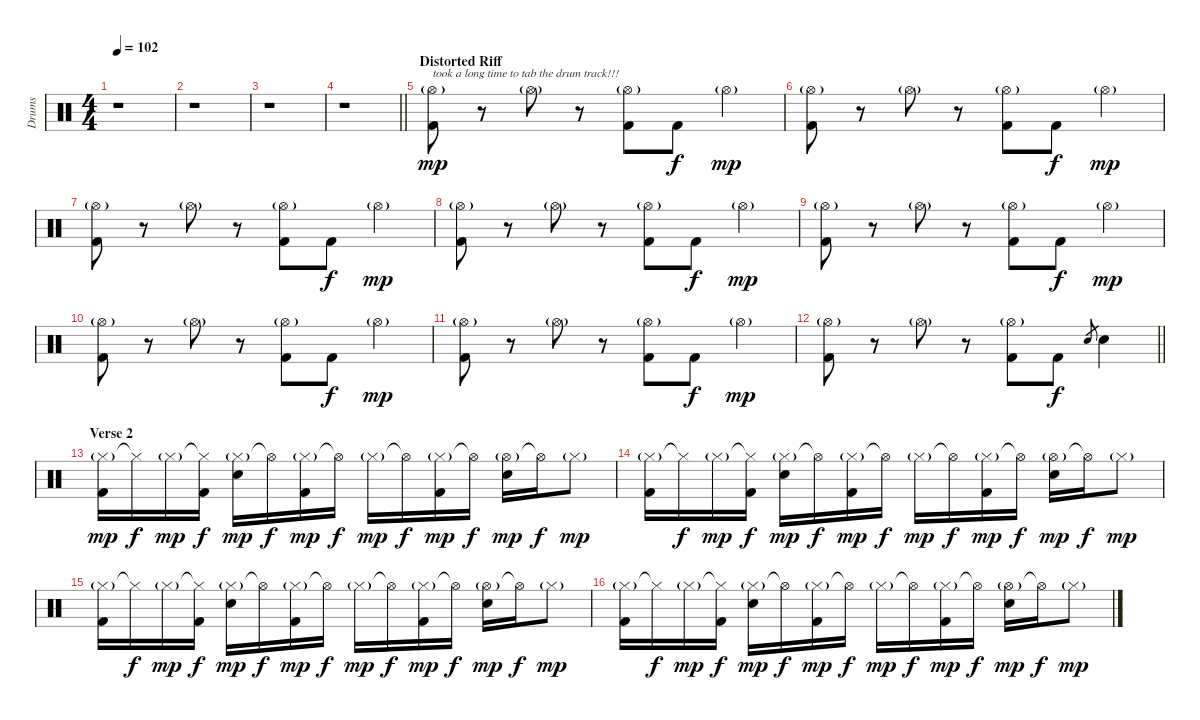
\track ("Drums" "Drums") {instrument percussion}
\staff {score}
\articulation defaults
\ts (4 4)
\tempo 102
\clef neutral
\ks c
r.1{dy mp} |
r.1 |
r.1 |
\barLineRight lightlight
r.1 |
\section ("" "Distorted Riff")
("Hi-Hat (open)"{g} "Kick (hit) 2").8{txt "took a long time to tab the drum track!!!"} r.8 "Hi-Hat (open)"{g}.8 r.8 ("Hi-Hat (open)"{g} "Kick (hit) 2").8 "Kick (hit) 2".8{dy f} "Hi-Hat (open)"{g}.4{dy mp} |
("Hi-Hat (open)"{g} "Kick (hit) 2").8 r.8 "Hi-Hat (open)"{g}.8 r.8 ("Hi-Hat (open)"{g} "Kick (hit) 2").8 "Kick (hit) 2".8{dy f} "Hi-Hat (open)"{g}.4{dy mp} |
("Hi-Hat (open)"{g} "Kick (hit) 2").8 r.8 "Hi-Hat (open)"{g}.8 r.8 ("Hi-Hat (open)"{g} "Kick (hit) 2").8 "Kick (hit) 2".8{dy f} "Hi-Hat (open)"{g}.4{dy mp} |
("Hi-Hat (open)"{g} "Kick (hit) 2").8 r.8 "Hi-Hat (open)"{g}.8 r.8 ("Hi-Hat (open)"{g} "Kick (hit) 2").8 "Kick (hit) 2".8{dy f} "Hi-Hat (open)"{g}.4{dy mp} |
("Hi-Hat (open)"{g} "Kick (hit) 2").8 r.8 "Hi-Hat (open)"{g}.8 r.8 ("Hi-Hat (open)"{g} "Kick (hit) 2").8 "Kick (hit) 2".8{dy f} "Hi-Hat (open)"{g}.4{dy mp} |
("Hi-Hat (open)"{g} "Kick (hit) 2").8 r.8 "Hi-Hat (open)"{g}.8 r.8 ("Hi-Hat (open)"{g} "Kick (hit) 2").8 "Kick (hit) 2".8{dy f} "Hi-Hat (open)"{g}.4{dy mp} |
("Hi-Hat (open)"{g} "Kick (hit) 2").8 r.8 "Hi-Hat (open)"{g}.8 r.8 ("Hi-Hat (open)"{g} "Kick (hit) 2").8 "Kick (hit) 2".8{dy f} "Hi-Hat (open)"{g}.4{dy mp} |
\barLineRight lightlight
("Hi-Hat (open)"{g} "Kick (hit) 2").8 r.8 "Hi-Hat (open)"{g}.8 r.8 ("Hi-Hat (open)"{g} "Kick (hit) 2").8 "Kick (hit) 2".8{dy f} "Electric Snare (hit)".8{gr} "Electric Snare (hit)".4 |
\section ("" "Verse 2")
("Hi-Hat (closed)"{g} "Kick (hit) 2").16{dy mp} "Hi-Hat (closed)"{t}.16{dy f} "Hi-Hat (closed)"{g}.16{dy mp} ("Hi-Hat (closed)"{t} "Kick (hit) 2").16{dy f} ("Hi-Hat (closed)"{g} "Electric Snare (hit)").16{dy mp} "Hi-Hat (open)"{t}.16{dy f} ("Hi-Hat (closed)"{g} "Kick (hit) 2").16{dy mp} "Hi-Hat (open)"{t}.16{dy f} "Hi-Hat (closed)"{g}.16{dy mp} "Hi-Hat (open)"{t}.16{dy f} ("Hi-Hat (closed)"{g} "Kick (hit) 2").16{dy mp} "Hi-Hat (open)"{t}.16{dy f} ("Hi-Hat (open)"{g} "Electric Snare (hit)").16{dy mp} "Hi-Hat (open)"{t}.16{dy f} "Hi-Hat (closed)"{g}.8{dy mp} |
("Hi-Hat (closed)"{g} "Kick (hit) 2").16 "Hi-Hat (closed)"{t}.16{dy f} "Hi-Hat (closed)"{g}.16{dy mp} ("Hi-Hat (closed)"{t} "Kick (hit) 2").16{dy f} ("Hi-Hat (closed)"{g} "Electric Snare (hit)").16{dy mp} "Hi-Hat (open)"{t}.16{dy f} ("Hi-Hat (closed)"{g} "Kick (hit) 2").16{dy mp} "Hi-Hat (open)"{t}.16{dy f} "Hi-Hat (closed)"{g}.16{dy mp} "Hi-Hat (open)"{t}.16{dy f} ("Hi-Hat (closed)"{g} "Kick (hit) 2").16{dy mp} "Hi-Hat (open)"{t}.16{dy f} ("Hi-Hat (open)"{g} "Electric Snare (hit)").16{dy mp} "Hi-Hat (open)"{t}.16{dy f} "Hi-Hat (closed)"{g}.8{dy mp} |
("Hi-Hat (closed)"{g} "Kick (hit) 2").16 "Hi-Hat (closed)"{t}.16{dy f} "Hi-Hat (closed)"{g}.16{dy mp} ("Hi-Hat (closed)"{t} "Kick (hit) 2").16{dy f} ("Hi-Hat (closed)"{g} "Electric Snare (hit)").16{dy mp} "Hi-Hat (open)"{t}.16{dy f} ("Hi-Hat (closed)"{g} "Kick (hit) 2").16{dy mp} "Hi-Hat (open)"{t}.16{dy f} "Hi-Hat (closed)"{g}.16{dy mp} "Hi-Hat (open)"{t}.16{dy f} ("Hi-Hat (closed)"{g} "Kick (hit) 2").16{dy mp} "Hi-Hat (open)"{t}.16{dy f} ("Hi-Hat (open)"{g} "Electric Snare (hit)").16{dy mp} "Hi-Hat (open)"{t}.16{dy f} "Hi-Hat (closed)"{g}.8{dy mp} |
("Hi-Hat (closed)"{g} "Kick (hit) 2").16 "Hi-Hat (closed)"{t}.16{dy f} "Hi-Hat (closed)"{g}.16{dy mp} ("Hi-Hat (closed)"{t} "Kick (hit) 2").16{dy f} ("Hi-Hat (closed)"{g} "Electric Snare (hit)").16{dy mp} "Hi-Hat (open)"{t}.16{dy f} ("Hi-Hat (closed)"{g} "Kick (hit) 2").16{dy mp} "Hi-Hat (open)"{t}.16{dy f} "Hi-Hat (closed)"{g}.16{dy mp} "Hi-Hat (open)"{t}.16{dy f} ("Hi-Hat (closed)"{g} "Kick (hit) 2").16{dy mp} "Hi-Hat (open)"{t}.16{dy f} ("Hi-Hat (open)"{g} "Electric Snare (hit)").16{dy mp} "Hi-Hat (open)"{t}.16{dy f} "Hi-Hat (closed)"{g}.8{dy mp}
